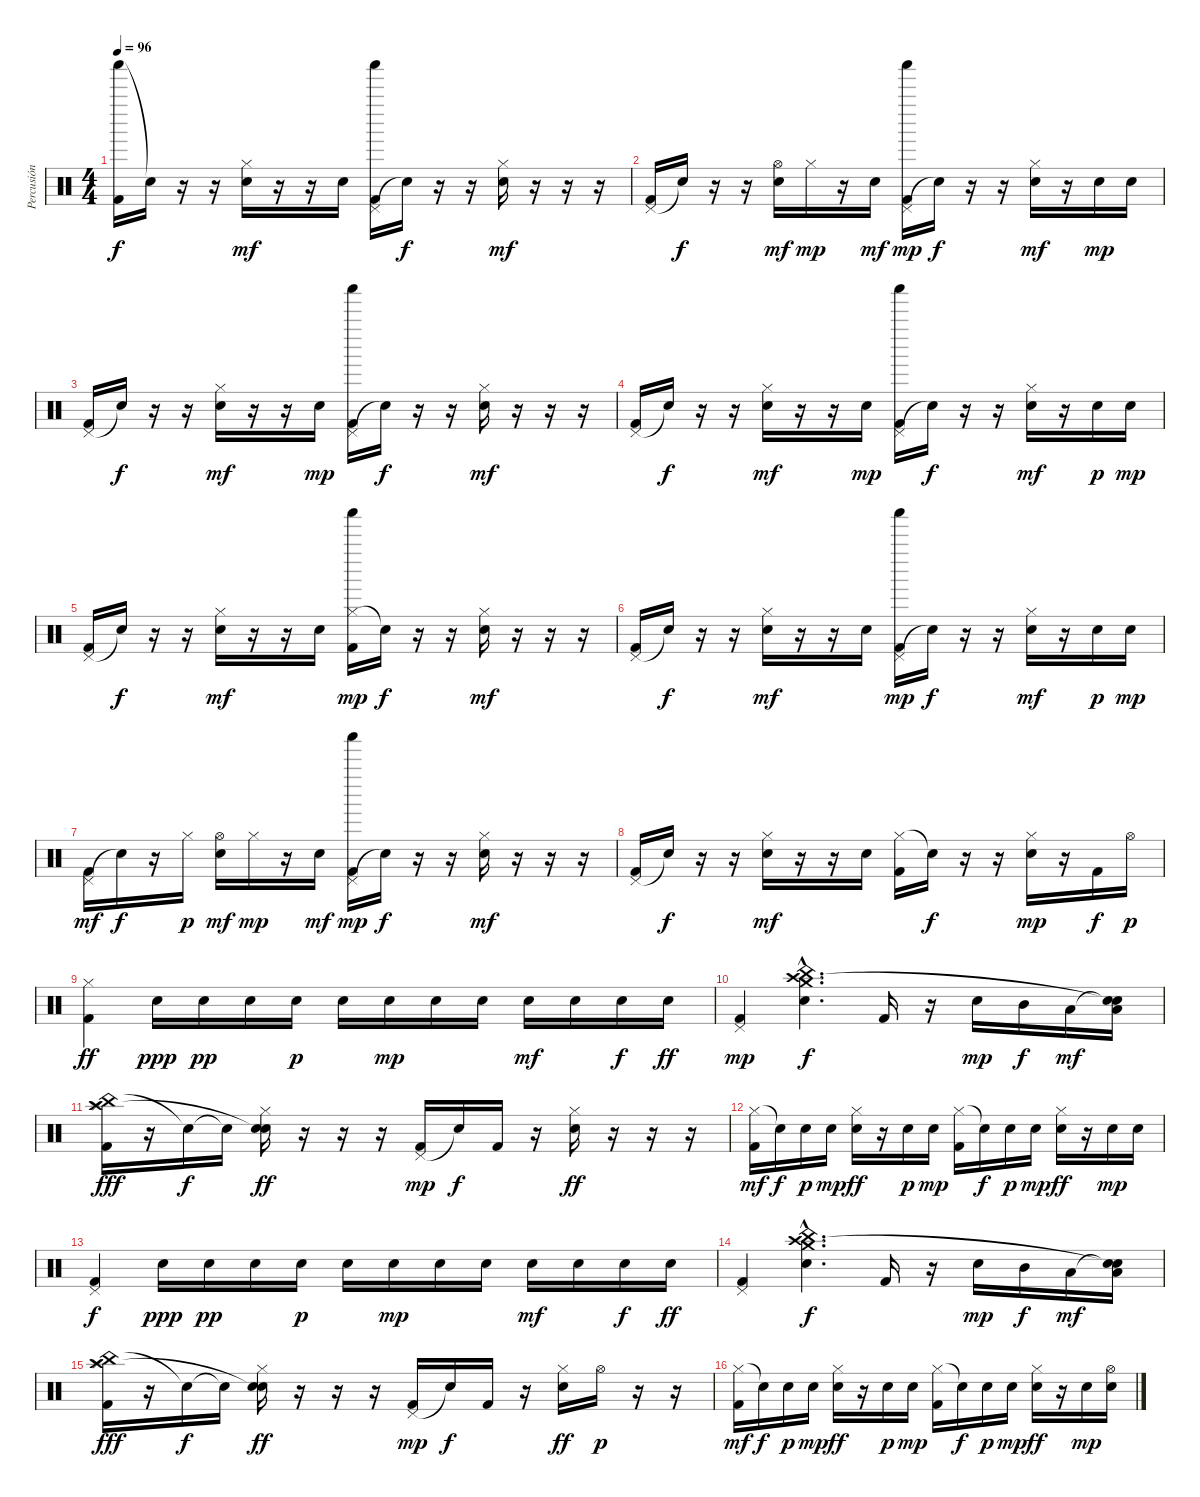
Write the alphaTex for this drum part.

\track ("Percusión" "Percusión") {instrument percussion}
\staff {score}
\articulation defaults
\ts (4 4)
\tempo 96
\clef neutral
\ks c
("Shaker (hit)" "Kick (hit) 2").16{dy f} "Snare (hit)"{t}.16 r.16 r.16 ("Hi-Hat (closed)" "Snare (hit) 2").16{dy mf} r.16 r.16 "Snare (hit) 2".16 ("Pedal Hi-Hat (hit)" "Shaker (hit)" "Kick (hit) 2").16 "Snare (hit)"{t}.16{dy f} r.16 r.16 ("Hi-Hat (closed)" "Snare (hit) 2").16{dy mf} r.16 r.16 r.16 |
("Pedal Hi-Hat (hit)" "Kick (hit) 2").16 "Snare (hit)"{t}.16{dy f} r.16 r.16 ("Hi-Hat (open)" "Snare (hit) 2").16{dy mf} "Hi-Hat (closed)".16{dy mp} r.16 "Snare (hit) 2".16{dy mf} ("Pedal Hi-Hat (hit)" "Shaker (hit)" "Kick (hit) 2").16{dy mp} "Snare (hit)"{t}.16{dy f} r.16 r.16 ("Hi-Hat (closed)" "Snare (hit) 2").16{dy mf} r.16 "Snare (hit) 2".16{dy mp} "Snare (hit) 2".16 |
("Pedal Hi-Hat (hit)" "Kick (hit) 2").16 "Snare (hit)"{t}.16{dy f} r.16 r.16 ("Hi-Hat (closed)" "Snare (hit) 2").16{dy mf} r.16 r.16 "Snare (hit) 2".16{dy mp} ("Pedal Hi-Hat (hit)" "Shaker (hit)" "Kick (hit) 2").16 "Snare (hit)"{t}.16{dy f} r.16 r.16 ("Hi-Hat (closed)" "Snare (hit) 2").16{dy mf} r.16 r.16 r.16 |
("Pedal Hi-Hat (hit)" "Kick (hit) 2").16 "Snare (hit)"{t}.16{dy f} r.16 r.16 ("Hi-Hat (closed)" "Snare (hit) 2").16{dy mf} r.16 r.16 "Snare (hit) 2".16{dy mp} ("Pedal Hi-Hat (hit)" "Shaker (hit)" "Kick (hit) 2").16 "Snare (hit)"{t}.16{dy f} r.16 r.16 ("Hi-Hat (closed)" "Snare (hit) 2").16{dy mf} r.16 "Snare (hit) 2".16{dy p} "Snare (hit) 2".16{dy mp} |
("Pedal Hi-Hat (hit)" "Kick (hit) 2").16 "Snare (hit)"{t}.16{dy f} r.16 r.16 ("Hi-Hat (closed)" "Snare (hit) 2").16{dy mf} r.16 r.16 "Snare (hit) 2".16 ("Hi-Hat (closed)" "Shaker (hit)" "Kick (hit) 2").16{dy mp} "Snare (hit)"{t}.16{dy f} r.16 r.16 ("Hi-Hat (closed)" "Snare (hit) 2").16{dy mf} r.16 r.16 r.16 |
("Pedal Hi-Hat (hit)" "Kick (hit) 2").16 "Snare (hit)"{t}.16{dy f} r.16 r.16 ("Hi-Hat (closed)" "Snare (hit) 2").16{dy mf} r.16 r.16 "Snare (hit) 2".16 ("Pedal Hi-Hat (hit)" "Shaker (hit)" "Kick (hit) 2").16{dy mp} "Snare (hit)"{t}.16{dy f} r.16 r.16 ("Hi-Hat (closed)" "Snare (hit) 2").16{dy mf} r.16 "Snare (hit) 2".16{dy p} "Snare (hit) 2".16{dy mp} |
("Pedal Hi-Hat (hit)" "Kick (hit) 2").16{dy mf} "Snare (hit)"{t}.16{dy f} r.16 "Hi-Hat (closed)".16{dy p} ("Hi-Hat (open)" "Snare (hit) 2").16{dy mf} "Hi-Hat (closed)".16{dy mp} r.16 "Snare (hit) 2".16{dy mf} ("Pedal Hi-Hat (hit)" "Shaker (hit)" "Kick (hit) 2").16{dy mp} "Snare (hit)"{t}.16{dy f} r.16 r.16 ("Hi-Hat (closed)" "Snare (hit) 2").16{dy mf} r.16 r.16 r.16 |
("Pedal Hi-Hat (hit)" "Kick (hit) 2").16 "Snare (hit)"{t}.16{dy f} r.16 r.16 ("Hi-Hat (closed)" "Snare (hit) 2").16{dy mf} r.16 r.16 "Snare (hit) 2".16 ("Hi-Hat (closed)" "Kick (hit) 2").16 "Snare (hit)"{t}.16{dy f} r.16 r.16 ("Hi-Hat (closed)" "Snare (hit) 2").16{dy mp} r.16 "Kick (hit) 2".16{dy f} "Hi-Hat (open)".16{dy p} |
("Hi-Hat (closed)" "Kick (hit) 2").4{dy ff} "Snare (hit) 2".16{dy ppp} "Snare (hit) 2".16{dy pp} "Snare (hit) 2".16 "Snare (hit) 2".16{dy p} "Snare (hit) 2".16 "Snare (hit) 2".16{dy mp} "Snare (hit) 2".16 "Snare (hit) 2".16 "Snare (hit) 2".16{dy mf} "Snare (hit) 2".16 "Snare (hit) 2".16{dy f} "Snare (hit) 2".16{dy ff} |
("Pedal Hi-Hat (hit)" "Kick (hit) 2").4{dy mp} ("Crash medium (hit)"{hac} "Crash high (hit)"{hac} "Snare (hit) 2"{hac} "China (hit)"{hac}).4{d dy f} "Kick (hit) 2".16 r.16 "Snare (hit) 2".16{dy mp} "Mid Tom (hit)".16{dy f} "Low Tom (hit)".16{dy mf} ("Snare (hit)"{t} "Snare (hit)"{t} "Low Tom (hit)").16 |
("China (hit)" "Crash high (hit)" "Splash (hit)" "Kick (hit) 2").16{dy fff} r.16 "Snare (hit)"{t}.16{dy f} "Snare (hit)"{t}.16 ("Hi-Hat (closed)" "Snare (hit)"{t} "Snare (hit) 2"{tr (38 32)}).16{dy ff} r.16 r.16 r.16 ("Pedal Hi-Hat (hit)" "Kick (hit) 2").16{dy mp} "Snare (hit)"{t}.16{dy f} "Kick (hit) 2".16 r.16 ("Hi-Hat (closed)" "Snare (hit) 2"{tr (38 32)}).16{dy ff} r.16 r.16 r.16 |
("Hi-Hat (closed)" "Kick (hit) 2").16{dy mf} "Snare (hit)"{t}.16{dy f} "Snare (hit) 2".16{dy p} "Snare (hit) 2".16{dy mp} ("Hi-Hat (closed)" "Snare (hit) 2").16{dy ff} r.16 "Snare (hit) 2".16{dy p} "Snare (hit) 2".16{dy mp} ("Hi-Hat (closed)" "Kick (hit) 2").16 "Snare (hit)"{t}.16{dy f} "Snare (hit) 2".16{dy p} "Snare (hit) 2".16{dy mp} ("Hi-Hat (closed)" "Snare (hit) 2").16{dy ff} r.16 "Snare (hit) 2".16{dy mp} "Snare (hit) 2".16 |
("Pedal Hi-Hat (hit)" "Kick (hit) 2").4{dy f} "Snare (hit) 2".16{dy ppp} "Snare (hit) 2".16{dy pp} "Snare (hit) 2".16 "Snare (hit) 2".16{dy p} "Snare (hit) 2".16 "Snare (hit) 2".16{dy mp} "Snare (hit) 2".16 "Snare (hit) 2".16 "Snare (hit) 2".16{dy mf} "Snare (hit) 2".16 "Snare (hit) 2".16{dy f} "Snare (hit) 2".16{dy ff} |
("Pedal Hi-Hat (hit)" "Kick (hit) 2").4 ("Crash medium (hit)"{hac} "Crash high (hit)"{hac} "Snare (hit) 2"{hac} "China (hit)"{hac}).4{d dy f} "Kick (hit) 2".16 r.16 "Snare (hit) 2".16{dy mp} "Mid Tom (hit)".16{dy f} "Low Tom (hit)".16{dy mf} ("Snare (hit)"{t} "Snare (hit)"{t} "Low Tom (hit)").16 |
("China (hit)" "Crash high (hit)" "Splash (hit)" "Kick (hit) 2").16{dy fff} r.16 "Snare (hit)"{t}.16{dy f} "Snare (hit)"{t}.16 ("Hi-Hat (closed)" "Snare (hit)"{t} "Snare (hit) 2"{tr (38 32)}).16{dy ff} r.16 r.16 r.16 ("Pedal Hi-Hat (hit)" "Kick (hit) 2").16{dy mp} "Snare (hit)"{t}.16{dy f} "Kick (hit) 2".16 r.16 ("Hi-Hat (closed)" "Snare (hit) 2"{tr (38 32)}).16{dy ff} "Hi-Hat (open)".16{dy p} r.16 r.16 |
("Hi-Hat (closed)" "Kick (hit) 2").16{dy mf} "Snare (hit)"{t}.16{dy f} "Snare (hit) 2".16{dy p} "Snare (hit) 2".16{dy mp} ("Hi-Hat (closed)" "Snare (hit) 2").16{dy ff} r.16 "Snare (hit) 2".16{dy p} "Snare (hit) 2".16{dy mp} ("Hi-Hat (closed)" "Kick (hit) 2").16 "Snare (hit)"{t}.16{dy f} "Snare (hit) 2".16{dy p} "Snare (hit) 2".16{dy mp} ("Hi-Hat (closed)" "Snare (hit) 2").16{dy ff} r.16 "Snare (hit) 2".16{dy mp} ("Hi-Hat (open)" "Snare (hit) 2").16
